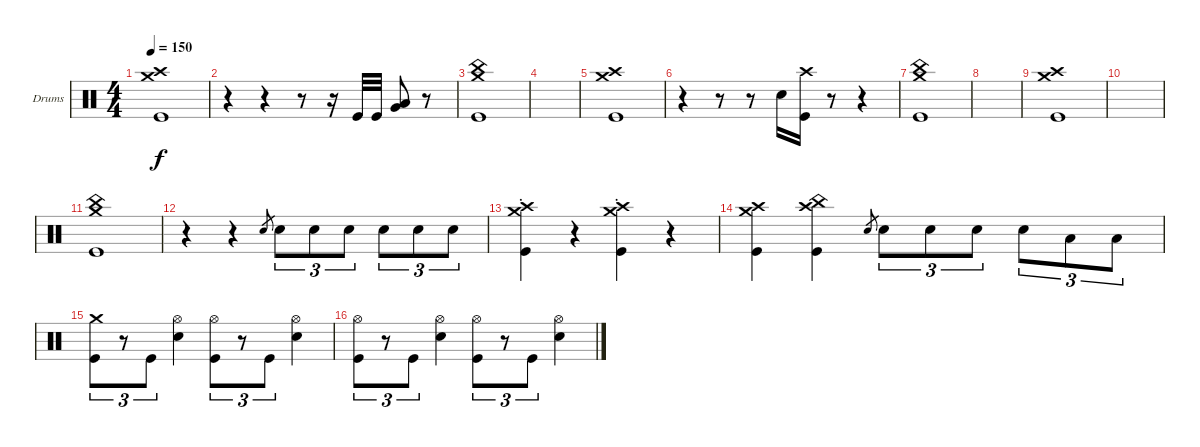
\defaultSystemsLayout 4
\bracketExtendMode groupsimilarinstruments
\firstSystemTrackNameOrientation horizontal
\otherSystemsTrackNameOrientation horizontal
\track ("Drumkit" "Drums") {instrument percussion}
\staff {score}
\articulation defaults
\ts (4 4)
\tempo 150
\clef neutral
\ks c
("Kick (hit)" "Crash medium (hit)" "Crash high (hit)").1{dy f} |
r.4 r.4 r.8 r.16 "Kick (hit)".32 "Kick (hit)".32 ("Very Low Tom (hit)" "Low Tom (hit)").8 r.8 |
("China (hit)" "Crash medium (hit)" "Kick (hit)").1 |
|
("Kick (hit)" "Crash medium (hit)" "Crash high (hit)").1 |
r.4 r.8 r.8 "Snare (hit) 2".16 ("Kick (hit)" "Crash high (hit)").16 r.8 r.4 |
("Kick (hit)" "China (hit)" "Crash medium (hit)").1 |
|
("Kick (hit)" "Crash medium (hit)" "Crash high (hit)").1 |
|
("Kick (hit)" "China (hit)" "Crash medium (hit)").1 |
r.4 r.4 "Snare (hit) 2".8{gr} "Snare (hit) 2".8{tu (3 2)} "Snare (hit) 2".8{tu (3 2)} "Snare (hit) 2".8{tu (3 2)} "Snare (hit) 2".8{tu (3 2)} "Snare (hit) 2".8{tu (3 2)} "Snare (hit) 2".8{tu (3 2)} |
("Kick (hit)"{st} "Crash medium (hit)"{st} "Crash high (hit)"{st}).4 r.4 ("Kick (hit)"{st} "Crash medium (hit)"{st} "Crash high (hit)"{st}).4 r.4 |
("Kick (hit)" "Crash medium (hit)" "Crash high (hit)").4 ("Kick (hit)" "Crash high (hit)" "China (hit)").4 "Snare (hit) 2".8{gr} "Snare (hit) 2".8{tu (3 2)} "Snare (hit) 2".8{tu (3 2)} "Snare (hit) 2".8{tu (3 2)} "Snare (hit) 2".8{tu (3 2)} "Low Tom (hit)".8{tu (3 2)} "Low Tom (hit)".8{tu (3 2)} |
("Kick (hit)" "Crash medium (hit)").8{tu (3 2)} r.8{tu (3 2)} "Kick (hit)".8{tu (3 2)} ("Snare (hit) 2" "Hi-Hat (open)").4 ("Kick (hit)" "Hi-Hat (open)").8{tu (3 2)} r.8{tu (3 2)} "Kick (hit)".8{tu (3 2)} ("Snare (hit) 2" "Hi-Hat (open)").4 |
("Kick (hit)" "Hi-Hat (open)").8{tu (3 2)} r.8{tu (3 2)} "Kick (hit)".8{tu (3 2)} ("Snare (hit) 2" "Hi-Hat (open)").4 ("Kick (hit)" "Hi-Hat (open)").8{tu (3 2)} r.8{tu (3 2)} "Kick (hit)".8{tu (3 2)} ("Snare (hit) 2" "Hi-Hat (open)").4
